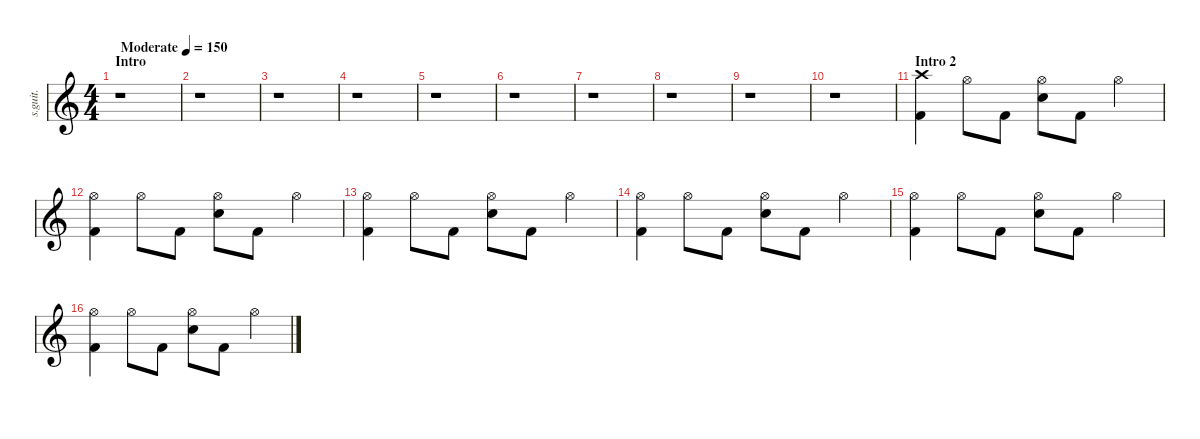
\defaultSystemsLayout 4
\hideDynamics
\bracketExtendMode nobrackets
\track ("Christoph Schneider" "s.guit.") {instrument percussion}
\staff {score}
\articulation defaults
\ts (4 4)
\beaming (8 2 2 2 2)
\section ("" "Intro")
\tempo (150 "Moderate")
\clef g2
\ks c
r.1{dy ff} |
r.1 |
r.1 |
r.1 |
r.1 |
r.1 |
r.1 |
r.1 |
r.1 |
r.1 |
\section ("" "Intro 2")
("Kick (hit) 2" "Crash high (hit)").4{lyrics (0 "") lyrics (1 "") lyrics (2 "") lyrics (3 "") lyrics (4 "")} "Hi-Hat (open)".8{lyrics (0 "") lyrics (1 "") lyrics (2 "") lyrics (3 "") lyrics (4 "")} "Kick (hit) 2".8{lyrics (0 "") lyrics (1 "") lyrics (2 "") lyrics (3 "") lyrics (4 "")} ("Snare (hit) 2" "Hi-Hat (open)").8{lyrics (0 "") lyrics (1 "") lyrics (2 "") lyrics (3 "") lyrics (4 "")} "Kick (hit) 2".8{lyrics (0 "") lyrics (1 "") lyrics (2 "") lyrics (3 "") lyrics (4 "")} "Hi-Hat (open)".4{lyrics (0 "") lyrics (1 "") lyrics (2 "") lyrics (3 "") lyrics (4 "")} |
("Kick (hit) 2" "Hi-Hat (open)").4{lyrics (0 "") lyrics (1 "") lyrics (2 "") lyrics (3 "") lyrics (4 "")} "Hi-Hat (open)".8{lyrics (0 "") lyrics (1 "") lyrics (2 "") lyrics (3 "") lyrics (4 "")} "Kick (hit) 2".8{lyrics (0 "") lyrics (1 "") lyrics (2 "") lyrics (3 "") lyrics (4 "")} ("Snare (hit) 2" "Hi-Hat (open)").8{lyrics (0 "") lyrics (1 "") lyrics (2 "") lyrics (3 "") lyrics (4 "")} "Kick (hit) 2".8{lyrics (0 "") lyrics (1 "") lyrics (2 "") lyrics (3 "") lyrics (4 "")} "Hi-Hat (open)".4{lyrics (0 "") lyrics (1 "") lyrics (2 "") lyrics (3 "") lyrics (4 "")} |
("Kick (hit) 2" "Hi-Hat (open)").4{lyrics (0 "") lyrics (1 "") lyrics (2 "") lyrics (3 "") lyrics (4 "")} "Hi-Hat (open)".8{lyrics (0 "") lyrics (1 "") lyrics (2 "") lyrics (3 "") lyrics (4 "")} "Kick (hit) 2".8{lyrics (0 "") lyrics (1 "") lyrics (2 "") lyrics (3 "") lyrics (4 "")} ("Snare (hit) 2" "Hi-Hat (open)").8{lyrics (0 "") lyrics (1 "") lyrics (2 "") lyrics (3 "") lyrics (4 "")} "Kick (hit) 2".8{lyrics (0 "") lyrics (1 "") lyrics (2 "") lyrics (3 "") lyrics (4 "")} "Hi-Hat (open)".4{lyrics (0 "") lyrics (1 "") lyrics (2 "") lyrics (3 "") lyrics (4 "")} |
("Kick (hit) 2" "Hi-Hat (open)").4{lyrics (0 "") lyrics (1 "") lyrics (2 "") lyrics (3 "") lyrics (4 "")} "Hi-Hat (open)".8{lyrics (0 "") lyrics (1 "") lyrics (2 "") lyrics (3 "") lyrics (4 "")} "Kick (hit) 2".8{lyrics (0 "") lyrics (1 "") lyrics (2 "") lyrics (3 "") lyrics (4 "")} ("Snare (hit) 2" "Hi-Hat (open)").8{lyrics (0 "") lyrics (1 "") lyrics (2 "") lyrics (3 "") lyrics (4 "")} "Kick (hit) 2".8{lyrics (0 "") lyrics (1 "") lyrics (2 "") lyrics (3 "") lyrics (4 "")} "Hi-Hat (open)".4{lyrics (0 "") lyrics (1 "") lyrics (2 "") lyrics (3 "") lyrics (4 "")} |
("Kick (hit) 2" "Hi-Hat (open)").4{lyrics (0 "") lyrics (1 "") lyrics (2 "") lyrics (3 "") lyrics (4 "")} "Hi-Hat (open)".8{lyrics (0 "") lyrics (1 "") lyrics (2 "") lyrics (3 "") lyrics (4 "")} "Kick (hit) 2".8{lyrics (0 "") lyrics (1 "") lyrics (2 "") lyrics (3 "") lyrics (4 "")} ("Snare (hit) 2" "Hi-Hat (open)").8{lyrics (0 "") lyrics (1 "") lyrics (2 "") lyrics (3 "") lyrics (4 "")} "Kick (hit) 2".8{lyrics (0 "") lyrics (1 "") lyrics (2 "") lyrics (3 "") lyrics (4 "")} "Hi-Hat (open)".4{lyrics (0 "") lyrics (1 "") lyrics (2 "") lyrics (3 "") lyrics (4 "")} |
("Kick (hit) 2" "Hi-Hat (open)").4{lyrics (0 "") lyrics (1 "") lyrics (2 "") lyrics (3 "") lyrics (4 "")} "Hi-Hat (open)".8{lyrics (0 "") lyrics (1 "") lyrics (2 "") lyrics (3 "") lyrics (4 "")} "Kick (hit) 2".8{lyrics (0 "") lyrics (1 "") lyrics (2 "") lyrics (3 "") lyrics (4 "")} ("Snare (hit) 2" "Hi-Hat (open)").8{lyrics (0 "") lyrics (1 "") lyrics (2 "") lyrics (3 "") lyrics (4 "")} "Kick (hit) 2".8{lyrics (0 "") lyrics (1 "") lyrics (2 "") lyrics (3 "") lyrics (4 "")} "Hi-Hat (open)".4{lyrics (0 "") lyrics (1 "") lyrics (2 "") lyrics (3 "") lyrics (4 "")}
